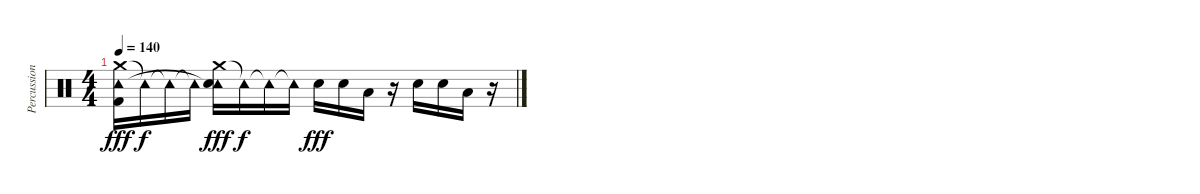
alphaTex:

\track ("Percussion" "Percussion") {instrument percussion}
\staff {score}
\articulation defaults
\ts (4 4)
\tempo 140
\clef neutral
\ks c
("Crash medium (hit)" "Tambourine (hit)"{t} "Kick (hit) 2").16{dy fff} "Tambourine (hit)"{t}.16{dy f} "Tambourine (hit)"{t}.16 "Tambourine (hit)"{t}.16 ("Crash medium (hit)" "Tambourine (hit)"{t} "Electric Snare (hit)").16{dy fff} "Tambourine (hit)"{t}.16{dy f} "Tambourine (hit)"{t}.16 "Tambourine (hit)"{t}.16 "Electric Snare (hit)".16{dy fff} "Electric Snare (hit)".16 "Low Floor Tom (hit)".16 r.16 "Electric Snare (hit)".16 "Electric Snare (hit)".16 "Low Floor Tom (hit)".16 r.16
